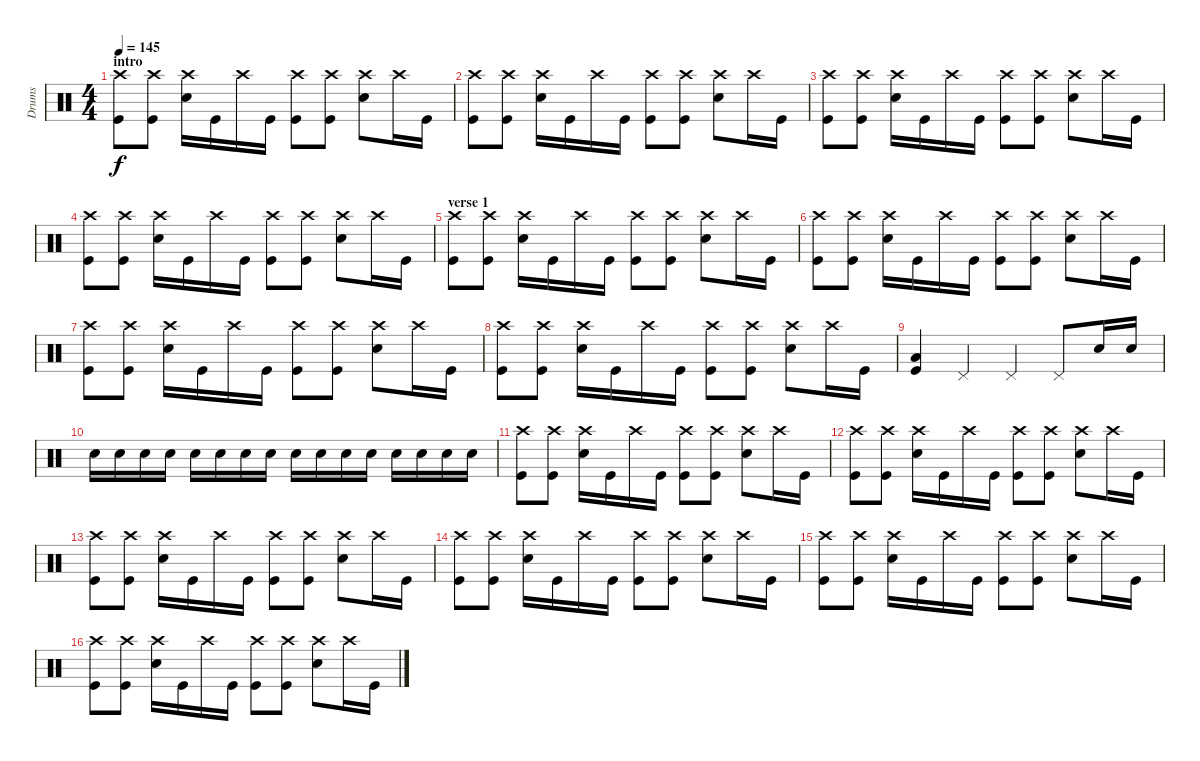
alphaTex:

\track ("Drums" "Drums") {instrument percussion}
\staff {score}
\articulation defaults
\ts (4 4)
\section ("" "intro")
\tempo 145
\clef neutral
\ks c
("Crash high (hit)" "Kick (hit)").8{dy f} ("Crash high (hit)" "Kick (hit)").8 ("Crash high (hit)" "Electric Snare (hit)").16 "Kick (hit)".16 "Crash high (hit)".16 "Kick (hit)".16 ("Crash high (hit)" "Kick (hit)").8 ("Crash high (hit)" "Kick (hit)").8 ("Crash high (hit)" "Electric Snare (hit)").8 "Crash high (hit)".16 "Kick (hit)".16 |
("Crash high (hit)" "Kick (hit)").8 ("Crash high (hit)" "Kick (hit)").8 ("Crash high (hit)" "Electric Snare (hit)").16 "Kick (hit)".16 "Crash high (hit)".16 "Kick (hit)".16 ("Crash high (hit)" "Kick (hit)").8 ("Crash high (hit)" "Kick (hit)").8 ("Crash high (hit)" "Electric Snare (hit)").8 "Crash high (hit)".16 "Kick (hit)".16 |
("Crash high (hit)" "Kick (hit)").8 ("Crash high (hit)" "Kick (hit)").8 ("Crash high (hit)" "Electric Snare (hit)").16 "Kick (hit)".16 "Crash high (hit)".16 "Kick (hit)".16 ("Crash high (hit)" "Kick (hit)").8 ("Crash high (hit)" "Kick (hit)").8 ("Crash high (hit)" "Electric Snare (hit)").8 "Crash high (hit)".16 "Kick (hit)".16 |
("Crash high (hit)" "Kick (hit)").8 ("Crash high (hit)" "Kick (hit)").8 ("Crash high (hit)" "Electric Snare (hit)").16 "Kick (hit)".16 "Crash high (hit)".16 "Kick (hit)".16 ("Crash high (hit)" "Kick (hit)").8 ("Crash high (hit)" "Kick (hit)").8 ("Crash high (hit)" "Electric Snare (hit)").8 "Crash high (hit)".16 "Kick (hit)".16 |
\section ("" "verse 1")
("Crash high (hit)" "Kick (hit)").8 ("Crash high (hit)" "Kick (hit)").8 ("Crash high (hit)" "Electric Snare (hit)").16 "Kick (hit)".16 "Crash high (hit)".16 "Kick (hit)".16 ("Crash high (hit)" "Kick (hit)").8 ("Crash high (hit)" "Kick (hit)").8 ("Crash high (hit)" "Electric Snare (hit)").8 "Crash high (hit)".16 "Kick (hit)".16 |
("Crash high (hit)" "Kick (hit)").8 ("Crash high (hit)" "Kick (hit)").8 ("Crash high (hit)" "Electric Snare (hit)").16 "Kick (hit)".16 "Crash high (hit)".16 "Kick (hit)".16 ("Crash high (hit)" "Kick (hit)").8 ("Crash high (hit)" "Kick (hit)").8 ("Crash high (hit)" "Electric Snare (hit)").8 "Crash high (hit)".16 "Kick (hit)".16 |
("Crash high (hit)" "Kick (hit)").8 ("Crash high (hit)" "Kick (hit)").8 ("Crash high (hit)" "Electric Snare (hit)").16 "Kick (hit)".16 "Crash high (hit)".16 "Kick (hit)".16 ("Crash high (hit)" "Kick (hit)").8 ("Crash high (hit)" "Kick (hit)").8 ("Crash high (hit)" "Electric Snare (hit)").8 "Crash high (hit)".16 "Kick (hit)".16 |
("Crash high (hit)" "Kick (hit)").8 ("Crash high (hit)" "Kick (hit)").8 ("Crash high (hit)" "Electric Snare (hit)").16 "Kick (hit)".16 "Crash high (hit)".16 "Kick (hit)".16 ("Crash high (hit)" "Kick (hit)").8 ("Crash high (hit)" "Kick (hit)").8 ("Crash high (hit)" "Electric Snare (hit)").8 "Crash high (hit)".16 "Kick (hit)".16 |
("Low Floor Tom (hit)" "Kick (hit)").4 "Pedal Hi-Hat (hit)".4 "Pedal Hi-Hat (hit)".4 "Pedal Hi-Hat (hit)".8 "Electric Snare (hit)".16 "Electric Snare (hit)".16 |
"Electric Snare (hit)".16 "Electric Snare (hit)".16 "Electric Snare (hit)".16 "Electric Snare (hit)".16 "Electric Snare (hit)".16 "Electric Snare (hit)".16 "Electric Snare (hit)".16 "Electric Snare (hit)".16 "Electric Snare (hit)".16 "Electric Snare (hit)".16 "Electric Snare (hit)".16 "Electric Snare (hit)".16 "Electric Snare (hit)".16 "Electric Snare (hit)".16 "Electric Snare (hit)".16 "Electric Snare (hit)".16 |
("Crash high (hit)" "Kick (hit)").8 ("Crash high (hit)" "Kick (hit)").8 ("Crash high (hit)" "Electric Snare (hit)").16 "Kick (hit)".16 "Crash high (hit)".16 "Kick (hit)".16 ("Crash high (hit)" "Kick (hit)").8 ("Crash high (hit)" "Kick (hit)").8 ("Crash high (hit)" "Electric Snare (hit)").8 "Crash high (hit)".16 "Kick (hit)".16 |
("Crash high (hit)" "Kick (hit)").8 ("Crash high (hit)" "Kick (hit)").8 ("Crash high (hit)" "Electric Snare (hit)").16 "Kick (hit)".16 "Crash high (hit)".16 "Kick (hit)".16 ("Crash high (hit)" "Kick (hit)").8 ("Crash high (hit)" "Kick (hit)").8 ("Crash high (hit)" "Electric Snare (hit)").8 "Crash high (hit)".16 "Kick (hit)".16 |
("Crash high (hit)" "Kick (hit)").8 ("Crash high (hit)" "Kick (hit)").8 ("Crash high (hit)" "Electric Snare (hit)").16 "Kick (hit)".16 "Crash high (hit)".16 "Kick (hit)".16 ("Crash high (hit)" "Kick (hit)").8 ("Crash high (hit)" "Kick (hit)").8 ("Crash high (hit)" "Electric Snare (hit)").8 "Crash high (hit)".16 "Kick (hit)".16 |
("Crash high (hit)" "Kick (hit)").8 ("Crash high (hit)" "Kick (hit)").8 ("Crash high (hit)" "Electric Snare (hit)").16 "Kick (hit)".16 "Crash high (hit)".16 "Kick (hit)".16 ("Crash high (hit)" "Kick (hit)").8 ("Crash high (hit)" "Kick (hit)").8 ("Crash high (hit)" "Electric Snare (hit)").8 "Crash high (hit)".16 "Kick (hit)".16 |
("Crash high (hit)" "Kick (hit)").8 ("Crash high (hit)" "Kick (hit)").8 ("Crash high (hit)" "Electric Snare (hit)").16 "Kick (hit)".16 "Crash high (hit)".16 "Kick (hit)".16 ("Crash high (hit)" "Kick (hit)").8 ("Crash high (hit)" "Kick (hit)").8 ("Crash high (hit)" "Electric Snare (hit)").8 "Crash high (hit)".16 "Kick (hit)".16 |
("Crash high (hit)" "Kick (hit)").8 ("Crash high (hit)" "Kick (hit)").8 ("Crash high (hit)" "Electric Snare (hit)").16 "Kick (hit)".16 "Crash high (hit)".16 "Kick (hit)".16 ("Crash high (hit)" "Kick (hit)").8 ("Crash high (hit)" "Kick (hit)").8 ("Crash high (hit)" "Electric Snare (hit)").8 "Crash high (hit)".16 "Kick (hit)".16
